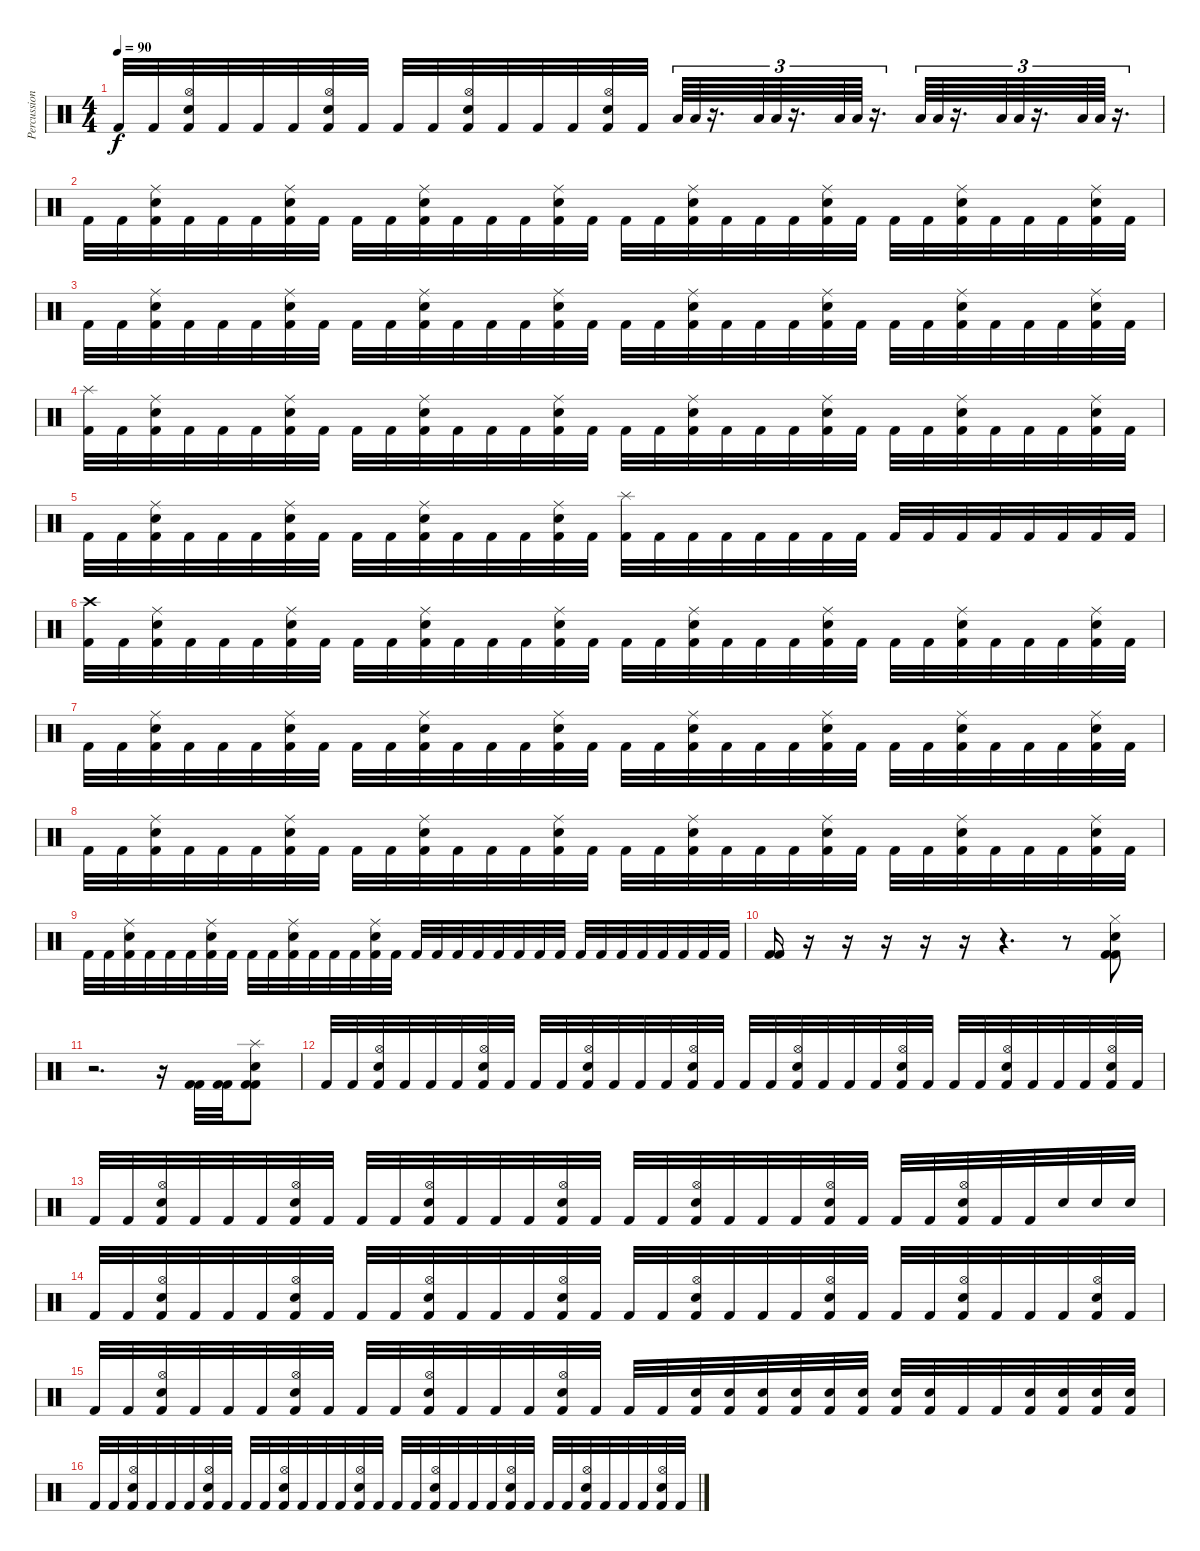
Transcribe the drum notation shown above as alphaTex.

\track ("Percussions" "Percussion") {instrument percussion}
\staff {score}
\articulation defaults
\ts (4 4)
\tempo 90
\clef neutral
\ks c "Kick (hit) 2".32{dy f} "Kick (hit) 2".32
("Hi-Hat (open)" "Electric Snare (hit)" "Kick (hit) 2").32 "Kick (hit) 2".32 "Kick (hit) 2".32 "Kick (hit) 2".32 ("Hi-Hat (open)" "Electric Snare (hit)" "Kick (hit) 2").32 "Kick (hit) 2".32 "Kick (hit) 2".32 "Kick (hit) 2".32 ("Hi-Hat (open)" "Electric Snare (hit)" "Kick (hit) 2").32 "Kick (hit) 2".32 "Kick (hit) 2".32 "Kick (hit) 2".32 ("Hi-Hat (open)" "Electric Snare (hit)" "Kick (hit) 2").32 "Kick (hit) 2".32 "Low Tom (hit)".64{tu (3 2)} "Low Tom (hit)".64{tu (3 2)} r.16{d tu (3 2)} "Low Tom (hit)".64{tu (3 2)} "Low Tom (hit)".64{tu (3 2)} r.16{d tu (3 2)} "Low Tom (hit)".64{tu (3 2)} "Low Tom (hit)".64{tu (3 2)} r.16{d tu (3 2)} "Low Tom (hit)".64{tu (3 2)} "Low Tom (hit)".64{tu (3 2)} r.16{d tu (3 2)} "Low Tom (hit)".64{tu (3 2)} "Low Tom (hit)".64{tu (3 2)} r.16{d tu (3 2)} "Low Tom (hit)".64{tu (3 2)} "Low Tom (hit)".64{tu (3 2)} r.16{d tu (3 2)} |
"Kick (hit) 2".32 "Kick (hit) 2".32 ("Ride (middle)" "Electric Snare (hit)" "Kick (hit) 2").32 "Kick (hit) 2".32 "Kick (hit) 2".32 "Kick (hit) 2".32 ("Ride (middle)" "Electric Snare (hit)" "Kick (hit) 2").32 "Kick (hit) 2".32 "Kick (hit) 2".32 "Kick (hit) 2".32 ("Ride (middle)" "Electric Snare (hit)" "Kick (hit) 2").32 "Kick (hit) 2".32 "Kick (hit) 2".32 "Kick (hit) 2".32 ("Ride (middle)" "Electric Snare (hit)" "Kick (hit) 2").32 "Kick (hit) 2".32 "Kick (hit) 2".32 "Kick (hit) 2".32 ("Ride (middle)" "Electric Snare (hit)" "Kick (hit) 2").32 "Kick (hit) 2".32 "Kick (hit) 2".32 "Kick (hit) 2".32 ("Ride (middle)" "Electric Snare (hit)" "Kick (hit) 2").32 "Kick (hit) 2".32 "Kick (hit) 2".32 "Kick (hit) 2".32 ("Ride (middle)" "Electric Snare (hit)" "Kick (hit) 2").32 "Kick (hit) 2".32 "Kick (hit) 2".32 "Kick (hit) 2".32 ("Ride (middle)" "Electric Snare (hit)" "Kick (hit) 2").32 "Kick (hit) 2".32 |
"Kick (hit) 2".32 "Kick (hit) 2".32 ("Ride (middle)" "Electric Snare (hit)" "Kick (hit) 2").32 "Kick (hit) 2".32 "Kick (hit) 2".32 "Kick (hit) 2".32 ("Ride (middle)" "Electric Snare (hit)" "Kick (hit) 2").32 "Kick (hit) 2".32 "Kick (hit) 2".32 "Kick (hit) 2".32 ("Ride (middle)" "Electric Snare (hit)" "Kick (hit) 2").32 "Kick (hit) 2".32 "Kick (hit) 2".32 "Kick (hit) 2".32 ("Ride (middle)" "Electric Snare (hit)" "Kick (hit) 2").32 "Kick (hit) 2".32 "Kick (hit) 2".32 "Kick (hit) 2".32 ("Ride (middle)" "Electric Snare (hit)" "Kick (hit) 2").32 "Kick (hit) 2".32 "Kick (hit) 2".32 "Kick (hit) 2".32 ("Ride (middle)" "Electric Snare (hit)" "Kick (hit) 2").32 "Kick (hit) 2".32 "Kick (hit) 2".32 "Kick (hit) 2".32 ("Ride (middle)" "Electric Snare (hit)" "Kick (hit) 2").32 "Kick (hit) 2".32 "Kick (hit) 2".32 "Kick (hit) 2".32 ("Ride (middle)" "Electric Snare (hit)" "Kick (hit) 2").32 "Kick (hit) 2".32 |
("Splash (hit)" "Kick (hit) 2").32 "Kick (hit) 2".32 ("Ride (middle)" "Electric Snare (hit)" "Kick (hit) 2").32 "Kick (hit) 2".32 "Kick (hit) 2".32 "Kick (hit) 2".32 ("Ride (middle)" "Electric Snare (hit)" "Kick (hit) 2").32 "Kick (hit) 2".32 "Kick (hit) 2".32 "Kick (hit) 2".32 ("Ride (middle)" "Electric Snare (hit)" "Kick (hit) 2").32 "Kick (hit) 2".32 "Kick (hit) 2".32 "Kick (hit) 2".32 ("Ride (middle)" "Electric Snare (hit)" "Kick (hit) 2").32 "Kick (hit) 2".32 "Kick (hit) 2".32 "Kick (hit) 2".32 ("Ride (middle)" "Electric Snare (hit)" "Kick (hit) 2").32 "Kick (hit) 2".32 "Kick (hit) 2".32 "Kick (hit) 2".32 ("Ride (middle)" "Electric Snare (hit)" "Kick (hit) 2").32 "Kick (hit) 2".32 "Kick (hit) 2".32 "Kick (hit) 2".32 ("Ride (middle)" "Electric Snare (hit)" "Kick (hit) 2").32 "Kick (hit) 2".32 "Kick (hit) 2".32 "Kick (hit) 2".32 ("Ride (middle)" "Electric Snare (hit)" "Kick (hit) 2").32 "Kick (hit) 2".32 |
"Kick (hit) 2".32 "Kick (hit) 2".32 ("Ride (middle)" "Electric Snare (hit)" "Kick (hit) 2").32 "Kick (hit) 2".32 "Kick (hit) 2".32 "Kick (hit) 2".32 ("Ride (middle)" "Electric Snare (hit)" "Kick (hit) 2").32 "Kick (hit) 2".32 "Kick (hit) 2".32 "Kick (hit) 2".32 ("Ride (middle)" "Electric Snare (hit)" "Kick (hit) 2").32 "Kick (hit) 2".32 "Kick (hit) 2".32 "Kick (hit) 2".32 ("Ride (middle)" "Electric Snare (hit)" "Kick (hit) 2").32 "Kick (hit) 2".32 ("Splash (hit)" "Kick (hit) 2").32 "Kick (hit) 2".32 "Kick (hit) 2".32 "Kick (hit) 2".32 "Kick (hit) 2".32 "Kick (hit) 2".32 "Kick (hit) 2".32 "Kick (hit) 2".32 "Kick (hit) 2".32 "Kick (hit) 2".32 "Kick (hit) 2".32 "Kick (hit) 2".32 "Kick (hit) 2".32 "Kick (hit) 2".32 "Kick (hit) 2".32 "Kick (hit) 2".32 |
("Crash high (hit)" "Kick (hit) 2").32 "Kick (hit) 2".32 ("Ride (middle)" "Electric Snare (hit)" "Kick (hit) 2").32 "Kick (hit) 2".32 "Kick (hit) 2".32 "Kick (hit) 2".32 ("Ride (middle)" "Electric Snare (hit)" "Kick (hit) 2").32 "Kick (hit) 2".32 "Kick (hit) 2".32 "Kick (hit) 2".32 ("Ride (middle)" "Electric Snare (hit)" "Kick (hit) 2").32 "Kick (hit) 2".32 "Kick (hit) 2".32 "Kick (hit) 2".32 ("Ride (middle)" "Electric Snare (hit)" "Kick (hit) 2").32 "Kick (hit) 2".32 "Kick (hit) 2".32 "Kick (hit) 2".32 ("Ride (middle)" "Electric Snare (hit)" "Kick (hit) 2").32 "Kick (hit) 2".32 "Kick (hit) 2".32 "Kick (hit) 2".32 ("Ride (middle)" "Electric Snare (hit)" "Kick (hit) 2").32 "Kick (hit) 2".32 "Kick (hit) 2".32 "Kick (hit) 2".32 ("Ride (middle)" "Electric Snare (hit)" "Kick (hit) 2").32 "Kick (hit) 2".32 "Kick (hit) 2".32 "Kick (hit) 2".32 ("Ride (middle)" "Electric Snare (hit)" "Kick (hit) 2").32 "Kick (hit) 2".32 |
"Kick (hit) 2".32 "Kick (hit) 2".32 ("Ride (middle)" "Electric Snare (hit)" "Kick (hit) 2").32 "Kick (hit) 2".32 "Kick (hit) 2".32 "Kick (hit) 2".32 ("Ride (middle)" "Electric Snare (hit)" "Kick (hit) 2").32 "Kick (hit) 2".32 "Kick (hit) 2".32 "Kick (hit) 2".32 ("Ride (middle)" "Electric Snare (hit)" "Kick (hit) 2").32 "Kick (hit) 2".32 "Kick (hit) 2".32 "Kick (hit) 2".32 ("Ride (middle)" "Electric Snare (hit)" "Kick (hit) 2").32 "Kick (hit) 2".32 "Kick (hit) 2".32 "Kick (hit) 2".32 ("Ride (middle)" "Electric Snare (hit)" "Kick (hit) 2").32 "Kick (hit) 2".32 "Kick (hit) 2".32 "Kick (hit) 2".32 ("Ride (middle)" "Electric Snare (hit)" "Kick (hit) 2").32 "Kick (hit) 2".32 "Kick (hit) 2".32 "Kick (hit) 2".32 ("Ride (middle)" "Electric Snare (hit)" "Kick (hit) 2").32 "Kick (hit) 2".32 "Kick (hit) 2".32 "Kick (hit) 2".32 ("Ride (middle)" "Electric Snare (hit)" "Kick (hit) 2").32 "Kick (hit) 2".32 |
"Kick (hit) 2".32 "Kick (hit) 2".32 ("Ride (middle)" "Electric Snare (hit)" "Kick (hit) 2").32 "Kick (hit) 2".32 "Kick (hit) 2".32 "Kick (hit) 2".32 ("Ride (middle)" "Electric Snare (hit)" "Kick (hit) 2").32 "Kick (hit) 2".32 "Kick (hit) 2".32 "Kick (hit) 2".32 ("Ride (middle)" "Electric Snare (hit)" "Kick (hit) 2").32 "Kick (hit) 2".32 "Kick (hit) 2".32 "Kick (hit) 2".32 ("Ride (middle)" "Electric Snare (hit)" "Kick (hit) 2").32 "Kick (hit) 2".32 "Kick (hit) 2".32 "Kick (hit) 2".32 ("Ride (middle)" "Electric Snare (hit)" "Kick (hit) 2").32 "Kick (hit) 2".32 "Kick (hit) 2".32 "Kick (hit) 2".32 ("Ride (middle)" "Electric Snare (hit)" "Kick (hit) 2").32 "Kick (hit) 2".32 "Kick (hit) 2".32 "Kick (hit) 2".32 ("Ride (middle)" "Electric Snare (hit)" "Kick (hit) 2").32 "Kick (hit) 2".32 "Kick (hit) 2".32 "Kick (hit) 2".32 ("Ride (middle)" "Electric Snare (hit)" "Kick (hit) 2").32 "Kick (hit) 2".32 |
"Kick (hit) 2".32 "Kick (hit) 2".32 ("Ride (middle)" "Electric Snare (hit)" "Kick (hit) 2").32 "Kick (hit) 2".32 "Kick (hit) 2".32 "Kick (hit) 2".32 ("Ride (middle)" "Electric Snare (hit)" "Kick (hit) 2").32 "Kick (hit) 2".32 "Kick (hit) 2".32 "Kick (hit) 2".32 ("Ride (middle)" "Electric Snare (hit)" "Kick (hit) 2").32 "Kick (hit) 2".32 "Kick (hit) 2".32 "Kick (hit) 2".32 ("Ride (middle)" "Electric Snare (hit)" "Kick (hit) 2").32 "Kick (hit) 2".32 "Kick (hit) 2".32 "Kick (hit) 2".32 "Kick (hit) 2".32 "Kick (hit) 2".32 "Kick (hit) 2".32 "Kick (hit) 2".32 "Kick (hit) 2".32 "Kick (hit) 2".32 "Kick (hit) 2".32 "Kick (hit) 2".32 "Kick (hit) 2".32 "Kick (hit) 2".32 "Kick (hit) 2".32 "Kick (hit) 2".32 "Kick (hit) 2".32 "Kick (hit) 2".32 |
("Kick (hit) 2" "Kick (hit) 2").16 r.16 r.16 r.16 r.16 r.16 r.4{d} r.8 ("Hi-Hat (closed)" "Electric Snare (hit)" "Kick (hit) 2" "Kick (hit) 2").8 |
r.2{d} r.16 ("Kick (hit) 2" "Kick (hit) 2").32 ("Kick (hit) 2" "Kick (hit) 2").32 ("Splash (hit)" "Electric Snare (hit)" "Kick (hit) 2" "Kick (hit) 2").8 |
"Kick (hit) 2".32 "Kick (hit) 2".32 ("Hi-Hat (open)" "Electric Snare (hit)" "Kick (hit) 2").32 "Kick (hit) 2".32 "Kick (hit) 2".32 "Kick (hit) 2".32 ("Hi-Hat (open)" "Electric Snare (hit)" "Kick (hit) 2").32 "Kick (hit) 2".32 "Kick (hit) 2".32 "Kick (hit) 2".32 ("Hi-Hat (open)" "Electric Snare (hit)" "Kick (hit) 2").32 "Kick (hit) 2".32 "Kick (hit) 2".32 "Kick (hit) 2".32 ("Hi-Hat (open)" "Electric Snare (hit)" "Kick (hit) 2").32 "Kick (hit) 2".32 "Kick (hit) 2".32 "Kick (hit) 2".32 ("Hi-Hat (open)" "Electric Snare (hit)" "Kick (hit) 2").32 "Kick (hit) 2".32 "Kick (hit) 2".32 "Kick (hit) 2".32 ("Hi-Hat (open)" "Electric Snare (hit)" "Kick (hit) 2").32 "Kick (hit) 2".32 "Kick (hit) 2".32 "Kick (hit) 2".32 ("Hi-Hat (open)" "Electric Snare (hit)" "Kick (hit) 2").32 "Kick (hit) 2".32 "Kick (hit) 2".32 "Kick (hit) 2".32 ("Hi-Hat (open)" "Electric Snare (hit)" "Kick (hit) 2").32 "Kick (hit) 2".32 |
"Kick (hit) 2".32 "Kick (hit) 2".32 ("Hi-Hat (open)" "Electric Snare (hit)" "Kick (hit) 2").32 "Kick (hit) 2".32 "Kick (hit) 2".32 "Kick (hit) 2".32 ("Hi-Hat (open)" "Electric Snare (hit)" "Kick (hit) 2").32 "Kick (hit) 2".32 "Kick (hit) 2".32 "Kick (hit) 2".32 ("Hi-Hat (open)" "Electric Snare (hit)" "Kick (hit) 2").32 "Kick (hit) 2".32 "Kick (hit) 2".32 "Kick (hit) 2".32 ("Hi-Hat (open)" "Electric Snare (hit)" "Kick (hit) 2").32 "Kick (hit) 2".32 "Kick (hit) 2".32 "Kick (hit) 2".32 ("Hi-Hat (open)" "Electric Snare (hit)" "Kick (hit) 2").32 "Kick (hit) 2".32 "Kick (hit) 2".32 "Kick (hit) 2".32 ("Hi-Hat (open)" "Electric Snare (hit)" "Kick (hit) 2").32 "Kick (hit) 2".32 "Kick (hit) 2".32 "Kick (hit) 2".32 ("Hi-Hat (open)" "Electric Snare (hit)" "Kick (hit) 2").32 "Kick (hit) 2".32 "Kick (hit) 2".32 "Electric Snare (hit)".32 "Electric Snare (hit)".32 "Electric Snare (hit)".32 |
"Kick (hit) 2".32 "Kick (hit) 2".32 ("Hi-Hat (open)" "Electric Snare (hit)" "Kick (hit) 2").32 "Kick (hit) 2".32 "Kick (hit) 2".32 "Kick (hit) 2".32 ("Hi-Hat (open)" "Electric Snare (hit)" "Kick (hit) 2").32 "Kick (hit) 2".32 "Kick (hit) 2".32 "Kick (hit) 2".32 ("Hi-Hat (open)" "Electric Snare (hit)" "Kick (hit) 2").32 "Kick (hit) 2".32 "Kick (hit) 2".32 "Kick (hit) 2".32 ("Hi-Hat (open)" "Electric Snare (hit)" "Kick (hit) 2").32 "Kick (hit) 2".32 "Kick (hit) 2".32 "Kick (hit) 2".32 ("Hi-Hat (open)" "Electric Snare (hit)" "Kick (hit) 2").32 "Kick (hit) 2".32 "Kick (hit) 2".32 "Kick (hit) 2".32 ("Hi-Hat (open)" "Electric Snare (hit)" "Kick (hit) 2").32 "Kick (hit) 2".32 "Kick (hit) 2".32 "Kick (hit) 2".32 ("Hi-Hat (open)" "Electric Snare (hit)" "Kick (hit) 2").32 "Kick (hit) 2".32 "Kick (hit) 2".32 "Kick (hit) 2".32 ("Hi-Hat (open)" "Electric Snare (hit)" "Kick (hit) 2").32 "Kick (hit) 2".32 |
"Kick (hit) 2".32 "Kick (hit) 2".32 ("Hi-Hat (open)" "Electric Snare (hit)" "Kick (hit) 2").32 "Kick (hit) 2".32 "Kick (hit) 2".32 "Kick (hit) 2".32 ("Hi-Hat (open)" "Electric Snare (hit)" "Kick (hit) 2").32 "Kick (hit) 2".32 "Kick (hit) 2".32 "Kick (hit) 2".32 ("Hi-Hat (open)" "Electric Snare (hit)" "Kick (hit) 2").32 "Kick (hit) 2".32 "Kick (hit) 2".32 "Kick (hit) 2".32 ("Hi-Hat (open)" "Electric Snare (hit)" "Kick (hit) 2").32 "Kick (hit) 2".32 "Kick (hit) 2".32 "Kick (hit) 2".32 ("Electric Snare (hit)" "Kick (hit) 2").32 ("Electric Snare (hit)" "Kick (hit) 2").32 ("Snare (hit) 2" "Kick (hit) 2").32 ("Snare (hit) 2" "Kick (hit) 2").32 ("Snare (hit) 2" "Kick (hit) 2").32 ("Electric Snare (hit)" "Kick (hit) 2").32 ("Electric Snare (hit)" "Kick (hit) 2").32 ("Electric Snare (hit)" "Kick (hit) 2").32 "Kick (hit) 2".32 "Kick (hit) 2".32 ("Electric Snare (hit)" "Kick (hit) 2").32 ("Electric Snare (hit)" "Kick (hit) 2").32 ("Electric Snare (hit)" "Kick (hit) 2").32 ("Electric Snare (hit)" "Kick (hit) 2").32 |
"Kick (hit) 2".32 "Kick (hit) 2".32 ("Hi-Hat (open)" "Electric Snare (hit)" "Kick (hit) 2").32 "Kick (hit) 2".32 "Kick (hit) 2".32 "Kick (hit) 2".32 ("Hi-Hat (open)" "Electric Snare (hit)" "Kick (hit) 2").32 "Kick (hit) 2".32 "Kick (hit) 2".32 "Kick (hit) 2".32 ("Hi-Hat (open)" "Electric Snare (hit)" "Kick (hit) 2").32 "Kick (hit) 2".32 "Kick (hit) 2".32 "Kick (hit) 2".32 ("Hi-Hat (open)" "Electric Snare (hit)" "Kick (hit) 2").32 "Kick (hit) 2".32 "Kick (hit) 2".32 "Kick (hit) 2".32 ("Hi-Hat (open)" "Electric Snare (hit)" "Kick (hit) 2").32 "Kick (hit) 2".32 "Kick (hit) 2".32 "Kick (hit) 2".32 ("Hi-Hat (open)" "Electric Snare (hit)" "Kick (hit) 2").32 "Kick (hit) 2".32 "Kick (hit) 2".32 "Kick (hit) 2".32 ("Hi-Hat (open)" "Electric Snare (hit)" "Kick (hit) 2").32 "Kick (hit) 2".32 "Kick (hit) 2".32 "Kick (hit) 2".32 ("Hi-Hat (open)" "Electric Snare (hit)" "Kick (hit) 2").32 "Kick (hit) 2".32
